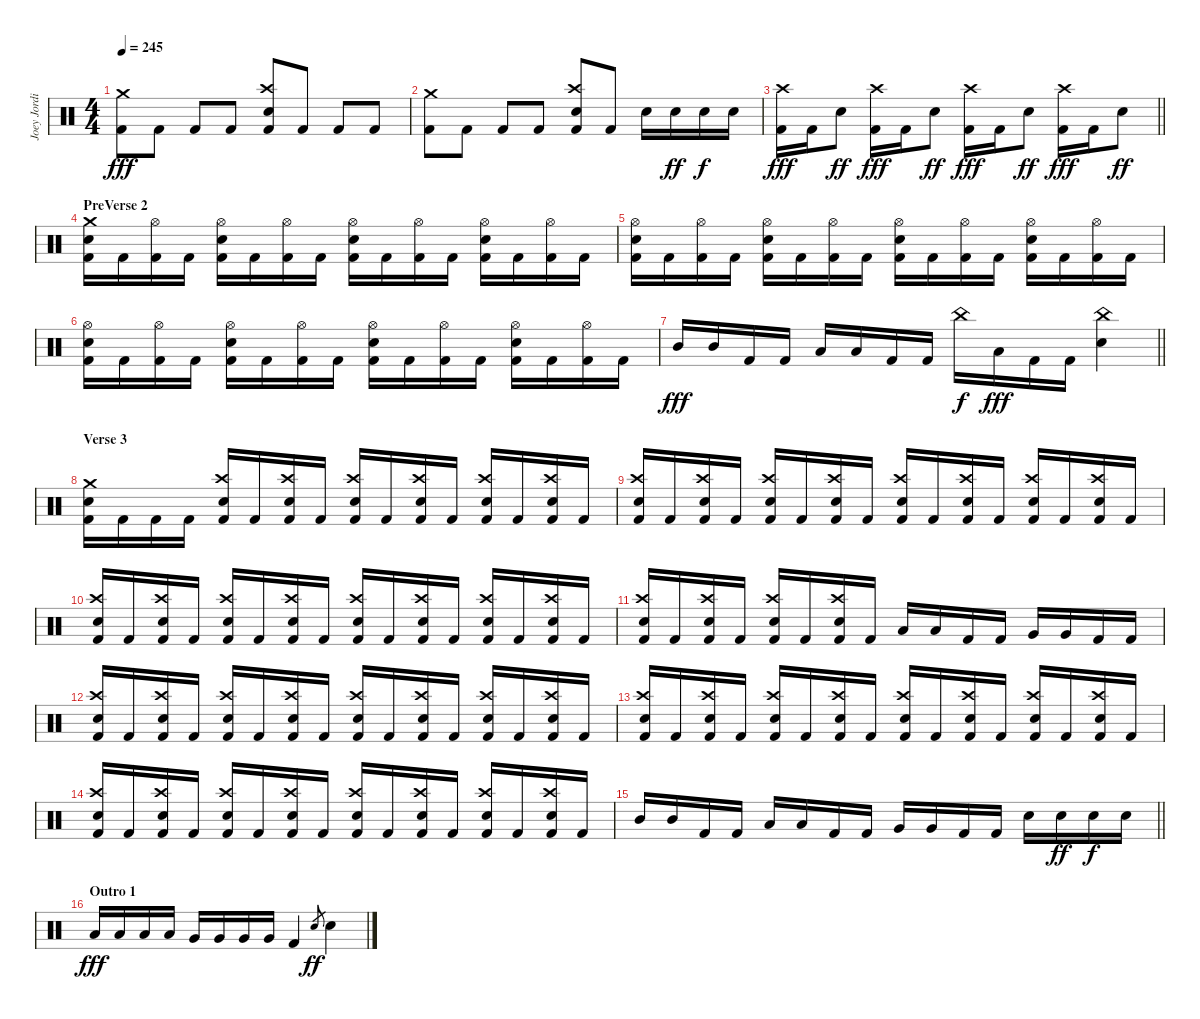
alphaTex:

\track ("Joey Jordison" "Joey Jordi") {instrument percussion}
\staff {score}
\articulation defaults
\ts (4 4)
\tempo 245
\clef neutral
\ks c
("Crash medium (hit)" "Kick (hit) 2").8{dy fff} "Kick (hit) 2".8 "Kick (hit) 2".8 "Kick (hit) 2".8 ("Crash high (hit)" "Electric Snare (hit)" "Kick (hit) 2").8 "Kick (hit) 2".8 "Kick (hit) 2".8 "Kick (hit) 2".8 |
("Crash medium (hit)" "Kick (hit) 2").8 "Kick (hit) 2".8 "Kick (hit) 2".8 "Kick (hit) 2".8 ("Crash high (hit)" "Electric Snare (hit)" "Kick (hit) 2").8 "Kick (hit) 2".8 "Electric Snare (hit)".16 "Electric Snare (hit)".16{dy ff} "Electric Snare (hit)".16{dy f} "Electric Snare (hit)".16 |
\barLineRight lightlight
("Crash high (hit)" "Kick (hit) 2").16{dy fff} "Kick (hit) 2".16 "Electric Snare (hit)".8{dy ff} ("Crash high (hit)" "Kick (hit) 2").16{dy fff} "Kick (hit) 2".16 "Electric Snare (hit)".8{dy ff} ("Crash high (hit)" "Kick (hit) 2").16{dy fff} "Kick (hit) 2".16 "Electric Snare (hit)".8{dy ff} ("Crash high (hit)" "Kick (hit) 2").16{dy fff} "Kick (hit) 2".16 "Electric Snare (hit)".8{dy ff} |
\section ("" "PreVerse 2")
("Crash medium (hit)" "Electric Snare (hit)" "Kick (hit) 2").16 "Kick (hit) 2".16 ("Hi-Hat (open)" "Kick (hit) 2").16 "Kick (hit) 2".16 ("Hi-Hat (open)" "Electric Snare (hit)" "Kick (hit) 2").16 "Kick (hit) 2".16 ("Hi-Hat (open)" "Kick (hit) 2").16 "Kick (hit) 2".16 ("Hi-Hat (open)" "Electric Snare (hit)" "Kick (hit) 2").16 "Kick (hit) 2".16 ("Hi-Hat (open)" "Kick (hit) 2").16 "Kick (hit) 2".16 ("Hi-Hat (open)" "Electric Snare (hit)" "Kick (hit) 2").16 "Kick (hit) 2".16 ("Hi-Hat (open)" "Kick (hit) 2").16 "Kick (hit) 2".16 |
("Hi-Hat (open)" "Electric Snare (hit)" "Kick (hit) 2").16 "Kick (hit) 2".16 ("Hi-Hat (open)" "Kick (hit) 2").16 "Kick (hit) 2".16 ("Hi-Hat (open)" "Electric Snare (hit)" "Kick (hit) 2").16 "Kick (hit) 2".16 ("Hi-Hat (open)" "Kick (hit) 2").16 "Kick (hit) 2".16 ("Hi-Hat (open)" "Electric Snare (hit)" "Kick (hit) 2").16 "Kick (hit) 2".16 ("Hi-Hat (open)" "Kick (hit) 2").16 "Kick (hit) 2".16 ("Hi-Hat (open)" "Electric Snare (hit)" "Kick (hit) 2").16 "Kick (hit) 2".16 ("Hi-Hat (open)" "Kick (hit) 2").16 "Kick (hit) 2".16 |
("Hi-Hat (open)" "Electric Snare (hit)" "Kick (hit) 2").16 "Kick (hit) 2".16 ("Hi-Hat (open)" "Kick (hit) 2").16 "Kick (hit) 2".16 ("Hi-Hat (open)" "Electric Snare (hit)" "Kick (hit) 2").16 "Kick (hit) 2".16 ("Hi-Hat (open)" "Kick (hit) 2").16 "Kick (hit) 2".16 ("Hi-Hat (open)" "Electric Snare (hit)" "Kick (hit) 2").16 "Kick (hit) 2".16 ("Hi-Hat (open)" "Kick (hit) 2").16 "Kick (hit) 2".16 ("Hi-Hat (open)" "Electric Snare (hit)" "Kick (hit) 2").16 "Kick (hit) 2".16 ("Hi-Hat (open)" "Kick (hit) 2").16 "Kick (hit) 2".16 |
\barLineRight lightlight "Mid Tom (hit)".16{dy fff} "Mid Tom (hit)".16 "Kick (hit) 2".16 "Kick (hit) 2".16 "Low Tom (hit)".16 "Low Tom (hit)".16 "Kick (hit) 2".16 "Kick (hit) 2".16 "China (hit)".16{dy f} "Low Tom (hit)".16{dy fff} "Kick (hit) 2".16 "Kick (hit) 2".16
("China (hit)" "Electric Snare (hit)").4 |
\section ("" "Verse 3")
("Crash medium (hit)" "Electric Snare (hit)" "Kick (hit) 2").16 "Kick (hit) 2".16 "Kick (hit) 2".16 "Kick (hit) 2".16 ("Crash high (hit)" "Electric Snare (hit)" "Kick (hit) 2").16 "Kick (hit) 2".16 ("Crash high (hit)" "Electric Snare (hit)" "Kick (hit) 2").16 "Kick (hit) 2".16 ("Crash high (hit)" "Electric Snare (hit)" "Kick (hit) 2").16 "Kick (hit) 2".16 ("Crash high (hit)" "Electric Snare (hit)" "Kick (hit) 2").16 "Kick (hit) 2".16 ("Crash high (hit)" "Electric Snare (hit)" "Kick (hit) 2").16 "Kick (hit) 2".16 ("Crash high (hit)" "Electric Snare (hit)" "Kick (hit) 2").16 "Kick (hit) 2".16 |
("Crash high (hit)" "Electric Snare (hit)" "Kick (hit) 2").16 "Kick (hit) 2".16 ("Crash high (hit)" "Electric Snare (hit)" "Kick (hit) 2").16 "Kick (hit) 2".16 ("Crash high (hit)" "Electric Snare (hit)" "Kick (hit) 2").16 "Kick (hit) 2".16 ("Crash high (hit)" "Electric Snare (hit)" "Kick (hit) 2").16 "Kick (hit) 2".16 ("Crash high (hit)" "Electric Snare (hit)" "Kick (hit) 2").16 "Kick (hit) 2".16 ("Crash high (hit)" "Electric Snare (hit)" "Kick (hit) 2").16 "Kick (hit) 2".16 ("Crash high (hit)" "Electric Snare (hit)" "Kick (hit) 2").16 "Kick (hit) 2".16 ("Crash high (hit)" "Electric Snare (hit)" "Kick (hit) 2").16 "Kick (hit) 2".16 |
("Crash high (hit)" "Electric Snare (hit)" "Kick (hit) 2").16 "Kick (hit) 2".16 ("Crash high (hit)" "Electric Snare (hit)" "Kick (hit) 2").16 "Kick (hit) 2".16 ("Crash high (hit)" "Electric Snare (hit)" "Kick (hit) 2").16 "Kick (hit) 2".16 ("Crash high (hit)" "Electric Snare (hit)" "Kick (hit) 2").16 "Kick (hit) 2".16 ("Crash high (hit)" "Electric Snare (hit)" "Kick (hit) 2").16 "Kick (hit) 2".16 ("Crash high (hit)" "Electric Snare (hit)" "Kick (hit) 2").16 "Kick (hit) 2".16 ("Crash high (hit)" "Electric Snare (hit)" "Kick (hit) 2").16 "Kick (hit) 2".16 ("Crash high (hit)" "Electric Snare (hit)" "Kick (hit) 2").16 "Kick (hit) 2".16 |
("Crash high (hit)" "Electric Snare (hit)" "Kick (hit) 2").16 "Kick (hit) 2".16 ("Crash high (hit)" "Electric Snare (hit)" "Kick (hit) 2").16 "Kick (hit) 2".16 ("Crash high (hit)" "Electric Snare (hit)" "Kick (hit) 2").16 "Kick (hit) 2".16 ("Crash high (hit)" "Electric Snare (hit)" "Kick (hit) 2").16 "Kick (hit) 2".16 "Low Tom (hit)".16 "Low Tom (hit)".16 "Kick (hit) 2".16 "Kick (hit) 2".16 "Very Low Tom (hit)".16 "Very Low Tom (hit)".16 "Kick (hit) 2".16 "Kick (hit) 2".16 |
("Crash high (hit)" "Electric Snare (hit)" "Kick (hit) 2").16 "Kick (hit) 2".16 ("Crash high (hit)" "Electric Snare (hit)" "Kick (hit) 2").16 "Kick (hit) 2".16 ("Crash high (hit)" "Electric Snare (hit)" "Kick (hit) 2").16 "Kick (hit) 2".16 ("Crash high (hit)" "Electric Snare (hit)" "Kick (hit) 2").16 "Kick (hit) 2".16 ("Crash high (hit)" "Electric Snare (hit)" "Kick (hit) 2").16 "Kick (hit) 2".16 ("Crash high (hit)" "Electric Snare (hit)" "Kick (hit) 2").16 "Kick (hit) 2".16 ("Crash high (hit)" "Electric Snare (hit)" "Kick (hit) 2").16 "Kick (hit) 2".16 ("Crash high (hit)" "Electric Snare (hit)" "Kick (hit) 2").16 "Kick (hit) 2".16 |
("Crash high (hit)" "Electric Snare (hit)" "Kick (hit) 2").16 "Kick (hit) 2".16 ("Crash high (hit)" "Electric Snare (hit)" "Kick (hit) 2").16 "Kick (hit) 2".16 ("Crash high (hit)" "Electric Snare (hit)" "Kick (hit) 2").16 "Kick (hit) 2".16 ("Crash high (hit)" "Electric Snare (hit)" "Kick (hit) 2").16 "Kick (hit) 2".16 ("Crash high (hit)" "Electric Snare (hit)" "Kick (hit) 2").16 "Kick (hit) 2".16 ("Crash high (hit)" "Electric Snare (hit)" "Kick (hit) 2").16 "Kick (hit) 2".16 ("Crash high (hit)" "Electric Snare (hit)" "Kick (hit) 2").16 "Kick (hit) 2".16 ("Crash high (hit)" "Electric Snare (hit)" "Kick (hit) 2").16 "Kick (hit) 2".16 |
("Crash high (hit)" "Electric Snare (hit)" "Kick (hit) 2").16 "Kick (hit) 2".16 ("Crash high (hit)" "Electric Snare (hit)" "Kick (hit) 2").16 "Kick (hit) 2".16 ("Crash high (hit)" "Electric Snare (hit)" "Kick (hit) 2").16 "Kick (hit) 2".16 ("Crash high (hit)" "Electric Snare (hit)" "Kick (hit) 2").16 "Kick (hit) 2".16 ("Crash high (hit)" "Electric Snare (hit)" "Kick (hit) 2").16 "Kick (hit) 2".16 ("Crash high (hit)" "Electric Snare (hit)" "Kick (hit) 2").16 "Kick (hit) 2".16 ("Crash high (hit)" "Electric Snare (hit)" "Kick (hit) 2").16 "Kick (hit) 2".16 ("Crash high (hit)" "Electric Snare (hit)" "Kick (hit) 2").16 "Kick (hit) 2".16 |
\barLineRight lightlight "Mid Tom (hit)".16 "Mid Tom (hit)".16 "Kick (hit) 2".16 "Kick (hit) 2".16 "Low Tom (hit)".16 "Low Tom (hit)".16 "Kick (hit) 2".16 "Kick (hit) 2".16 "Very Low Tom (hit)".16 "Very Low Tom (hit)".16 "Kick (hit) 2".16 "Kick (hit) 2".16 "Electric Snare (hit)".16 "Electric Snare (hit)".16{dy ff} "Electric Snare (hit)".16{dy f} "Electric Snare (hit)".16
|
\section ("" "Outro 1")
"Low Tom (hit)".16{dy fff} "Low Tom (hit)".16 "Low Tom (hit)".16 "Low Tom (hit)".16 "Very Low Tom (hit)".16 "Very Low Tom (hit)".16 "Very Low Tom (hit)".16 "Very Low Tom (hit)".16 "Kick (hit) 2".4 "Electric Snare (hit)".8{gr dy ff} "Electric Snare (hit)".4
